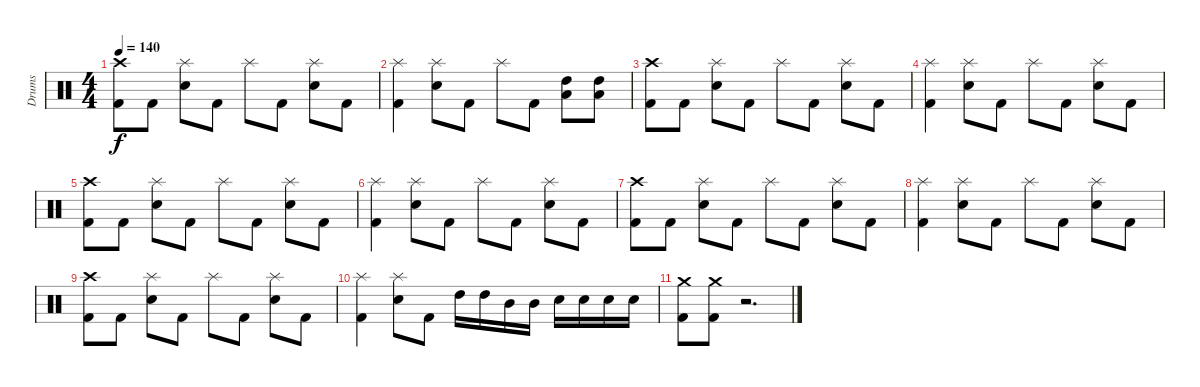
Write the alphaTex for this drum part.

\track ("Drums" "Drums") {instrument percussion}
\staff {score}
\articulation defaults
\ts (4 4)
\tempo 140
\clef neutral
\ks c
("Kick (hit) 2" "Crash high (hit)").8{dy f} "Kick (hit) 2".8 ("Snare (hit) 2" "Splash (hit)").8 "Kick (hit) 2".8 "Splash (hit)".8 "Kick (hit) 2".8 ("Snare (hit) 2" "Splash (hit)").8 "Kick (hit) 2".8 |
("Kick (hit) 2" "Splash (hit)").4 ("Snare (hit) 2" "Splash (hit)").8 "Kick (hit) 2".8 "Splash (hit)".8 "Kick (hit) 2".8 ("High Tom (hit)" "Low Tom (hit)").8 ("High Tom (hit)" "Low Tom (hit)").8 |
("Kick (hit) 2" "Crash high (hit)").8 "Kick (hit) 2".8 ("Snare (hit) 2" "Splash (hit)").8 "Kick (hit) 2".8 "Splash (hit)".8 "Kick (hit) 2".8 ("Snare (hit) 2" "Splash (hit)").8 "Kick (hit) 2".8 |
("Kick (hit) 2" "Splash (hit)").4 ("Snare (hit) 2" "Splash (hit)").8 "Kick (hit) 2".8 "Splash (hit)".8 "Kick (hit) 2".8 ("Snare (hit) 2" "Splash (hit)").8 "Kick (hit) 2".8 |
("Kick (hit) 2" "Crash high (hit)").8 "Kick (hit) 2".8 ("Snare (hit) 2" "Splash (hit)").8 "Kick (hit) 2".8 "Splash (hit)".8 "Kick (hit) 2".8 ("Snare (hit) 2" "Splash (hit)").8 "Kick (hit) 2".8 |
("Kick (hit) 2" "Splash (hit)").4 ("Snare (hit) 2" "Splash (hit)").8 "Kick (hit) 2".8 "Splash (hit)".8 "Kick (hit) 2".8 ("Snare (hit) 2" "Splash (hit)").8 "Kick (hit) 2".8 |
("Kick (hit) 2" "Crash high (hit)").8 "Kick (hit) 2".8 ("Snare (hit) 2" "Splash (hit)").8 "Kick (hit) 2".8 "Splash (hit)".8 "Kick (hit) 2".8 ("Snare (hit) 2" "Splash (hit)").8 "Kick (hit) 2".8 |
("Kick (hit) 2" "Splash (hit)").4 ("Snare (hit) 2" "Splash (hit)").8 "Kick (hit) 2".8 "Splash (hit)".8 "Kick (hit) 2".8 ("Snare (hit) 2" "Splash (hit)").8 "Kick (hit) 2".8 |
("Kick (hit) 2" "Crash high (hit)").8 "Kick (hit) 2".8 ("Snare (hit) 2" "Splash (hit)").8 "Kick (hit) 2".8 "Splash (hit)".8 "Kick (hit) 2".8 ("Snare (hit) 2" "Splash (hit)").8 "Kick (hit) 2".8 |
("Kick (hit) 2" "Splash (hit)").4 ("Snare (hit) 2" "Splash (hit)").8 "Kick (hit) 2".8 "High Tom (hit)".16 "High Tom (hit)".16 "Mid Tom (hit)".16 "Mid Tom (hit)".16 "Snare (hit) 2".16 "Snare (hit) 2".16 "Snare (hit) 2".16 "Snare (hit) 2".16 |
("Kick (hit) 2" "Crash medium (hit)").8 ("Kick (hit) 2" "Crash medium (hit)").8 r.2{d}
